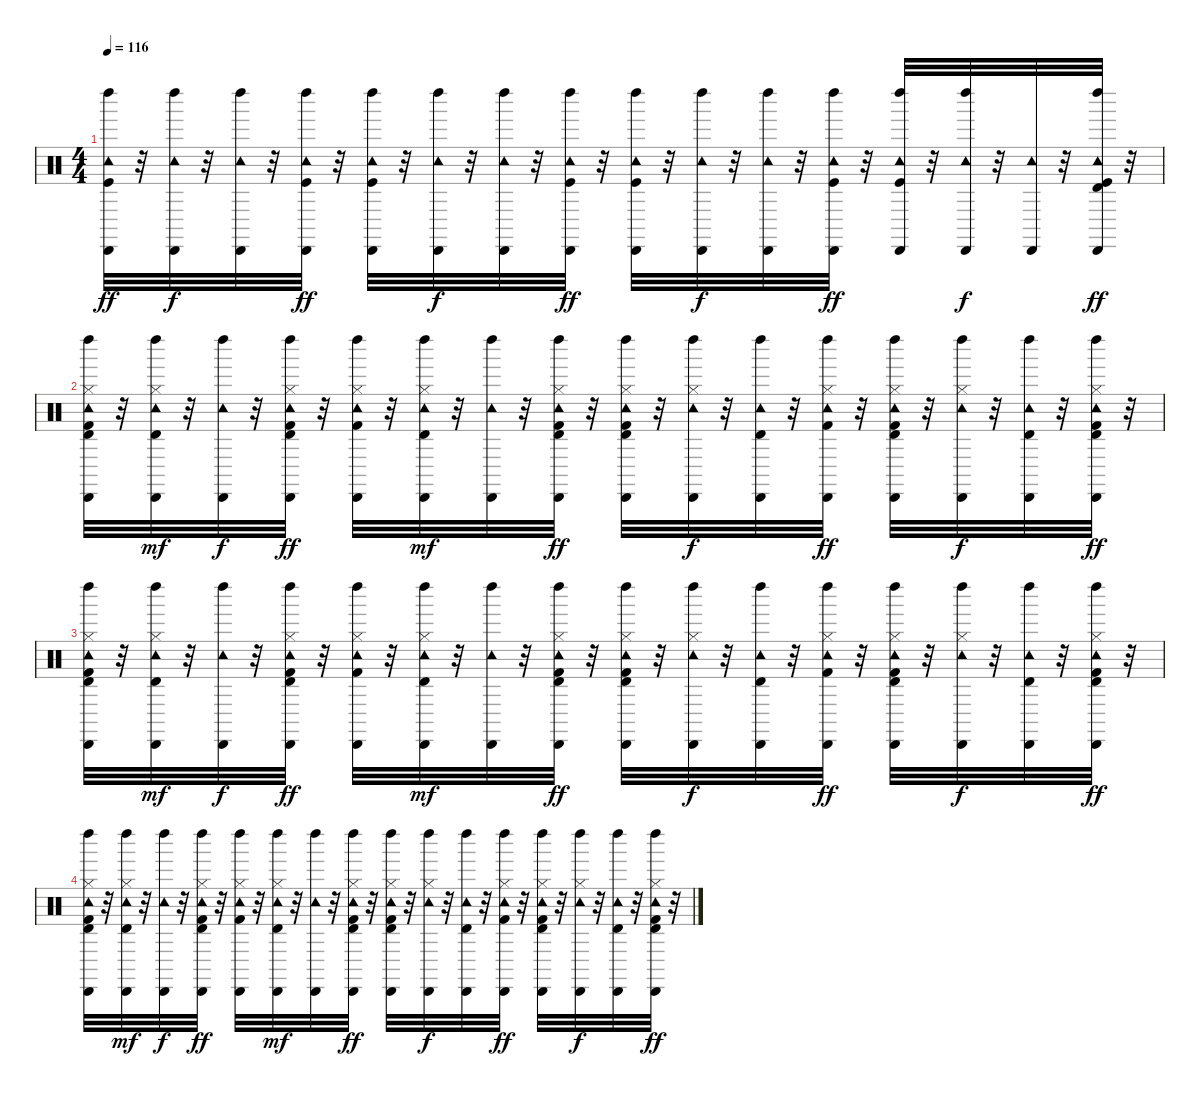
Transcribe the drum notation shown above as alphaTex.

\track "" {instrument percussion}
\staff {score}
\articulation defaults
\ts (4 4)
\tempo 116
\clef neutral
\ks c
("Kick (hit)" "Tambourine (hit)" "Cabasa (hit)" "Left Maraca (hit)").32{dy ff} r.32 ("Tambourine (hit)" "Cabasa (hit)" "Left Maraca (hit)").32{dy f} r.32 ("Tambourine (hit)" "Cabasa (hit)" "Left Maraca (hit)").32 r.32 ("Kick (hit)" "Tambourine (hit)" "Cabasa (hit)" "Left Maraca (hit)").32{dy ff} r.32 ("Kick (hit)" "Tambourine (hit)" "Cabasa (hit)" "Left Maraca (hit)").32 r.32 ("Tambourine (hit)" "Cabasa (hit)" "Left Maraca (hit)").32{dy f} r.32 ("Tambourine (hit)" "Cabasa (hit)" "Left Maraca (hit)").32 r.32 ("Kick (hit)" "Tambourine (hit)" "Cabasa (hit)" "Left Maraca (hit)").32{dy ff} r.32 ("Kick (hit)" "Tambourine (hit)" "Cabasa (hit)" "Left Maraca (hit)").32 r.32 ("Tambourine (hit)" "Cabasa (hit)" "Left Maraca (hit)").32{dy f} r.32 ("Tambourine (hit)" "Cabasa (hit)" "Left Maraca (hit)").32 r.32 ("Kick (hit)" "Tambourine (hit)" "Cabasa (hit)" "Left Maraca (hit)").32{dy ff} r.32 ("Kick (hit)" "Tambourine (hit)" "Cabasa (hit)" "Left Maraca (hit)").32 r.32 ("Tambourine (hit)" "Cabasa (hit)" "Left Maraca (hit)").32{dy f} r.32 ("Tambourine (hit)" "Cabasa (hit)").32 r.32 ("Kick (hit)" "Tambourine (hit)" "Timbale high (hit)" "Cabasa (hit)" "Left Maraca (hit)").32{dy ff} r.32 |
("Kick (hit) 2" "Hi-Hat (closed)" "Tambourine (hit)" "Timbale high (hit)" "Cabasa (hit)" "Left Maraca (hit)").32 r.32 ("Hi-Hat (closed)" "Tambourine (hit)" "Timbale high (hit)" "Cabasa (hit)" "Left Maraca (hit)").32{dy mf} r.32 ("Tambourine (hit)" "Cabasa (hit)" "Left Maraca (hit)").32{dy f} r.32 ("Kick (hit) 2" "Hi-Hat (closed)" "Tambourine (hit)" "Timbale high (hit)" "Cabasa (hit)" "Left Maraca (hit)").32{dy ff} r.32 ("Kick (hit) 2" "Hi-Hat (closed)" "Tambourine (hit)" "Cabasa (hit)" "Left Maraca (hit)").32 r.32 ("Hi-Hat (closed)" "Tambourine (hit)" "Timbale high (hit)" "Cabasa (hit)" "Left Maraca (hit)").32{dy mf} r.32 ("Tambourine (hit)" "Cabasa (hit)" "Left Maraca (hit)").32 r.32 ("Kick (hit) 2" "Hi-Hat (closed)" "Tambourine (hit)" "Timbale high (hit)" "Cabasa (hit)" "Left Maraca (hit)").32{dy ff} r.32 ("Kick (hit) 2" "Hi-Hat (closed)" "Tambourine (hit)" "Timbale high (hit)" "Cabasa (hit)" "Left Maraca (hit)").32 r.32 ("Hi-Hat (closed)" "Tambourine (hit)" "Cabasa (hit)" "Left Maraca (hit)").32{dy f} r.32 ("Tambourine (hit)" "Timbale high (hit)" "Cabasa (hit)" "Left Maraca (hit)").32 r.32 ("Kick (hit) 2" "Hi-Hat (closed)" "Tambourine (hit)" "Cabasa (hit)" "Left Maraca (hit)").32{dy ff} r.32 ("Kick (hit) 2" "Hi-Hat (closed)" "Tambourine (hit)" "Timbale high (hit)" "Cabasa (hit)" "Left Maraca (hit)").32 r.32 ("Hi-Hat (closed)" "Tambourine (hit)" "Cabasa (hit)" "Left Maraca (hit)").32{dy f} r.32 ("Tambourine (hit)" "Timbale high (hit)" "Cabasa (hit)" "Left Maraca (hit)").32 r.32 ("Kick (hit) 2" "Hi-Hat (closed)" "Tambourine (hit)" "Timbale high (hit)" "Cabasa (hit)" "Left Maraca (hit)").32{dy ff} r.32 |
("Kick (hit) 2" "Hi-Hat (closed)" "Tambourine (hit)" "Timbale high (hit)" "Cabasa (hit)" "Left Maraca (hit)").32 r.32 ("Hi-Hat (closed)" "Tambourine (hit)" "Timbale high (hit)" "Cabasa (hit)" "Left Maraca (hit)").32{dy mf} r.32 ("Tambourine (hit)" "Cabasa (hit)" "Left Maraca (hit)").32{dy f} r.32 ("Kick (hit) 2" "Hi-Hat (closed)" "Tambourine (hit)" "Timbale high (hit)" "Cabasa (hit)" "Left Maraca (hit)").32{dy ff} r.32 ("Kick (hit) 2" "Hi-Hat (closed)" "Tambourine (hit)" "Cabasa (hit)" "Left Maraca (hit)").32 r.32 ("Hi-Hat (closed)" "Tambourine (hit)" "Timbale high (hit)" "Cabasa (hit)" "Left Maraca (hit)").32{dy mf} r.32 ("Tambourine (hit)" "Cabasa (hit)" "Left Maraca (hit)").32 r.32 ("Kick (hit) 2" "Hi-Hat (closed)" "Tambourine (hit)" "Timbale high (hit)" "Cabasa (hit)" "Left Maraca (hit)").32{dy ff} r.32 ("Kick (hit) 2" "Hi-Hat (closed)" "Tambourine (hit)" "Timbale high (hit)" "Cabasa (hit)" "Left Maraca (hit)").32 r.32 ("Hi-Hat (closed)" "Tambourine (hit)" "Cabasa (hit)" "Left Maraca (hit)").32{dy f} r.32 ("Tambourine (hit)" "Timbale high (hit)" "Cabasa (hit)" "Left Maraca (hit)").32 r.32 ("Kick (hit) 2" "Hi-Hat (closed)" "Tambourine (hit)" "Cabasa (hit)" "Left Maraca (hit)").32{dy ff} r.32 ("Kick (hit) 2" "Hi-Hat (closed)" "Tambourine (hit)" "Timbale high (hit)" "Cabasa (hit)" "Left Maraca (hit)").32 r.32 ("Hi-Hat (closed)" "Tambourine (hit)" "Cabasa (hit)" "Left Maraca (hit)").32{dy f} r.32 ("Tambourine (hit)" "Timbale high (hit)" "Cabasa (hit)" "Left Maraca (hit)").32 r.32 ("Kick (hit) 2" "Hi-Hat (closed)" "Tambourine (hit)" "Timbale high (hit)" "Cabasa (hit)" "Left Maraca (hit)").32{dy ff} r.32 |
("Kick (hit) 2" "Hi-Hat (closed)" "Tambourine (hit)" "Timbale high (hit)" "Cabasa (hit)" "Left Maraca (hit)").32 r.32 ("Hi-Hat (closed)" "Tambourine (hit)" "Timbale high (hit)" "Cabasa (hit)" "Left Maraca (hit)").32{dy mf} r.32 ("Tambourine (hit)" "Cabasa (hit)" "Left Maraca (hit)").32{dy f} r.32 ("Kick (hit) 2" "Hi-Hat (closed)" "Tambourine (hit)" "Timbale high (hit)" "Cabasa (hit)" "Left Maraca (hit)").32{dy ff} r.32 ("Kick (hit) 2" "Hi-Hat (closed)" "Tambourine (hit)" "Cabasa (hit)" "Left Maraca (hit)").32 r.32 ("Hi-Hat (closed)" "Tambourine (hit)" "Timbale high (hit)" "Cabasa (hit)" "Left Maraca (hit)").32{dy mf} r.32 ("Tambourine (hit)" "Cabasa (hit)" "Left Maraca (hit)").32 r.32 ("Kick (hit) 2" "Hi-Hat (closed)" "Tambourine (hit)" "Timbale high (hit)" "Cabasa (hit)" "Left Maraca (hit)").32{dy ff} r.32 ("Kick (hit) 2" "Hi-Hat (closed)" "Tambourine (hit)" "Timbale high (hit)" "Cabasa (hit)" "Left Maraca (hit)").32 r.32 ("Hi-Hat (closed)" "Tambourine (hit)" "Cabasa (hit)" "Left Maraca (hit)").32{dy f} r.32 ("Tambourine (hit)" "Timbale high (hit)" "Cabasa (hit)" "Left Maraca (hit)").32 r.32 ("Kick (hit) 2" "Hi-Hat (closed)" "Tambourine (hit)" "Cabasa (hit)" "Left Maraca (hit)").32{dy ff} r.32 ("Kick (hit) 2" "Hi-Hat (closed)" "Tambourine (hit)" "Timbale high (hit)" "Cabasa (hit)" "Left Maraca (hit)").32 r.32 ("Hi-Hat (closed)" "Tambourine (hit)" "Cabasa (hit)" "Left Maraca (hit)").32{dy f} r.32 ("Tambourine (hit)" "Timbale high (hit)" "Cabasa (hit)" "Left Maraca (hit)").32 r.32 ("Kick (hit) 2" "Hi-Hat (closed)" "Tambourine (hit)" "Timbale high (hit)" "Cabasa (hit)" "Left Maraca (hit)").32{dy ff} r.32
